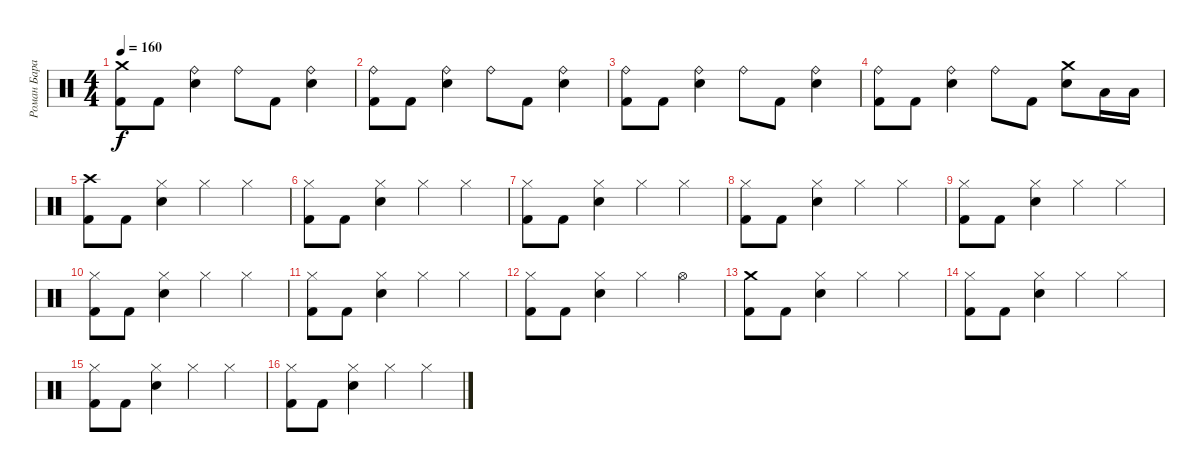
\track ("Роман Баранюк" "Роман Бара") {instrument percussion}
\staff {score}
\articulation defaults
\ts (4 4)
\tempo 160
\clef neutral
\ks c
("Crash medium (hit)" "Kick (hit) 2").8{dy f} "Kick (hit) 2".8 ("Ride (bell)" "Snare (hit) 2").4 "Ride (bell)".8 "Kick (hit) 2".8 ("Ride (bell)" "Snare (hit) 2").4 |
("Ride (bell)" "Kick (hit) 2").8 "Kick (hit) 2".8 ("Ride (bell)" "Snare (hit) 2").4 "Ride (bell)".8 "Kick (hit) 2".8 ("Ride (bell)" "Snare (hit) 2").4 |
("Ride (bell)" "Kick (hit) 2").8 "Kick (hit) 2".8 ("Ride (bell)" "Snare (hit) 2").4 "Ride (bell)".8 "Kick (hit) 2".8 ("Ride (bell)" "Snare (hit) 2").4 |
("Ride (bell)" "Kick (hit) 2").8 "Kick (hit) 2".8 ("Ride (bell)" "Snare (hit) 2").4 "Ride (bell)".8 "Kick (hit) 2".8 ("Crash medium (hit)" "Snare (hit) 2").8 "Low Tom (hit)".16 "Low Tom (hit)".16 |
("Crash high (hit)" "Kick (hit) 2").8 "Kick (hit) 2".8 ("Hi-Hat (closed)" "Snare (hit) 2").4 "Hi-Hat (closed)".4 "Hi-Hat (closed)".4 |
("Hi-Hat (closed)" "Kick (hit) 2").8 "Kick (hit) 2".8 ("Hi-Hat (closed)" "Snare (hit) 2").4 "Hi-Hat (closed)".4 "Hi-Hat (closed)".4 |
("Hi-Hat (closed)" "Kick (hit) 2").8 "Kick (hit) 2".8 ("Hi-Hat (closed)" "Snare (hit) 2").4 "Hi-Hat (closed)".4 "Hi-Hat (closed)".4 |
("Hi-Hat (closed)" "Kick (hit) 2").8 "Kick (hit) 2".8 ("Hi-Hat (closed)" "Snare (hit) 2").4 "Hi-Hat (closed)".4 "Hi-Hat (closed)".4 |
("Hi-Hat (closed)" "Kick (hit) 2").8 "Kick (hit) 2".8 ("Hi-Hat (closed)" "Snare (hit) 2").4 "Hi-Hat (closed)".4 "Hi-Hat (closed)".4 |
("Hi-Hat (closed)" "Kick (hit) 2").8 "Kick (hit) 2".8 ("Hi-Hat (closed)" "Snare (hit) 2").4 "Hi-Hat (closed)".4 "Hi-Hat (closed)".4 |
("Hi-Hat (closed)" "Kick (hit) 2").8 "Kick (hit) 2".8 ("Hi-Hat (closed)" "Snare (hit) 2").4 "Hi-Hat (closed)".4 "Hi-Hat (closed)".4 |
("Hi-Hat (closed)" "Kick (hit) 2").8 "Kick (hit) 2".8 ("Hi-Hat (closed)" "Snare (hit) 2").4 "Hi-Hat (closed)".4 "Hi-Hat (open)".4 |
("Crash medium (hit)" "Kick (hit) 2").8 "Kick (hit) 2".8 ("Hi-Hat (closed)" "Snare (hit) 2").4 "Hi-Hat (closed)".4 "Hi-Hat (closed)".4 |
("Hi-Hat (closed)" "Kick (hit) 2").8 "Kick (hit) 2".8 ("Hi-Hat (closed)" "Snare (hit) 2").4 "Hi-Hat (closed)".4 "Hi-Hat (closed)".4 |
("Hi-Hat (closed)" "Kick (hit) 2").8 "Kick (hit) 2".8 ("Hi-Hat (closed)" "Snare (hit) 2").4 "Hi-Hat (closed)".4 "Hi-Hat (closed)".4 |
("Hi-Hat (closed)" "Kick (hit) 2").8 "Kick (hit) 2".8 ("Hi-Hat (closed)" "Snare (hit) 2").4 "Hi-Hat (closed)".4 "Hi-Hat (closed)".4
